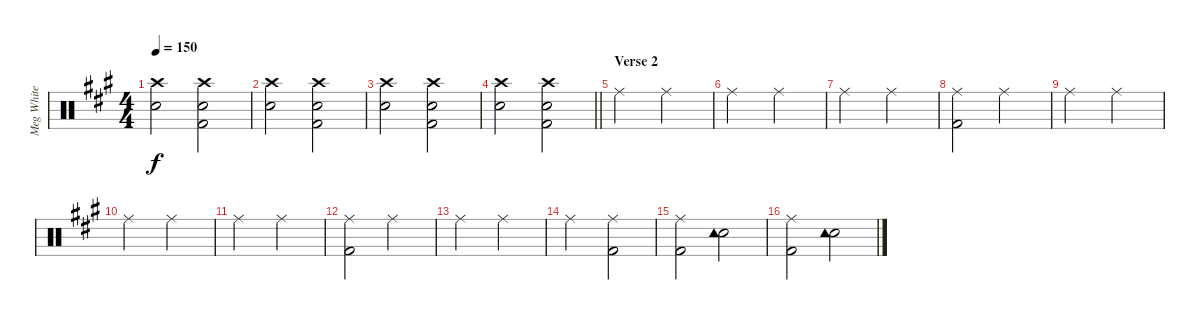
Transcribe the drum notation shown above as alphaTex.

\track ("Meg White Drums" "Meg White ") {instrument percussion}
\staff {score}
\articulation defaults
\ts (4 4)
\tempo 150
\clef neutral
\ks a
("Crash high (hit)" "Snare (hit) 2").2{dy f} ("Crash high (hit)" "Kick (hit) 2" "Snare (hit) 2").2 |
("Crash high (hit)" "Snare (hit) 2").2 ("Crash high (hit)" "Kick (hit) 2" "Snare (hit) 2").2 |
("Crash high (hit)" "Snare (hit) 2").2 ("Crash high (hit)" "Kick (hit) 2" "Snare (hit) 2").2 |
\barLineRight lightlight
("Crash high (hit)" "Snare (hit) 2").2 ("Crash high (hit)" "Kick (hit) 2" "Snare (hit) 2").2 |
\section ("" "Verse 2")
"Ride (middle)".2 "Ride (middle)".2 |
"Ride (middle)".2 "Ride (middle)".2 |
"Ride (middle)".2 "Ride (middle)".2 |
("Ride (middle)" "Kick (hit) 2").2 "Ride (middle)".2 |
"Ride (middle)".2 "Ride (middle)".2 |
"Ride (middle)".2 "Ride (middle)".2 |
"Ride (middle)".2 "Ride (middle)".2 |
("Ride (middle)" "Kick (hit) 2").2 "Ride (middle)".2 |
"Ride (middle)".2 "Ride (middle)".2 |
"Ride (middle)".2 ("Ride (middle)" "Kick (hit) 2").2 |
("Ride (middle)" "Kick (hit) 2").2 ("Snare (hit) 2" "Tambourine (hit)").2 |
("Ride (middle)" "Kick (hit) 2").2 ("Snare (hit) 2" "Tambourine (hit)").2
